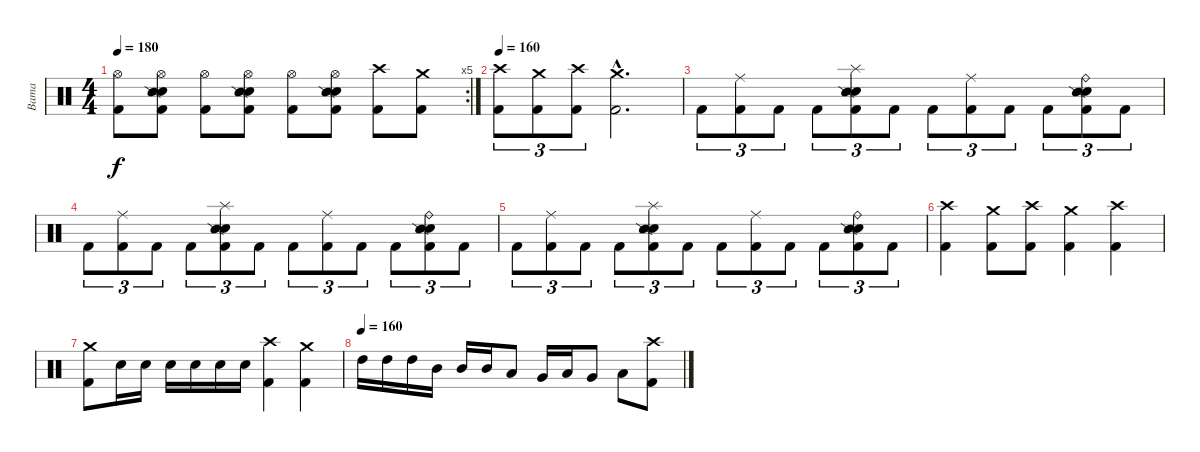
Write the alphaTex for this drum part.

\track ("Bama" "Bama") {instrument percussion}
\staff {score}
\articulation defaults
\rc 5
\ts (4 4)
\tempo 180
\clef neutral
\ks c
("Hi-Hat (open)" "Kick (hit) 2").8{dy f} ("Hi-Hat (open)" "Electric Snare (hit)" "Snare (side stick) 2" "Kick (hit) 2").8 ("Hi-Hat (open)" "Kick (hit) 2").8 ("Hi-Hat (open)" "Electric Snare (hit)" "Snare (side stick) 2" "Kick (hit) 2").8 ("Hi-Hat (open)" "Kick (hit) 2").8 ("Hi-Hat (open)" "Electric Snare (hit)" "Snare (side stick) 2" "Kick (hit) 2").8 ("Crash high (hit)" "Kick (hit) 2").8 ("Crash medium (hit)" "Kick (hit) 2").8 |
\tempo 160
("Crash high (hit)" "Kick (hit) 2").8{tu (3 2)} ("Crash medium (hit)" "Kick (hit) 2").8{tu (3 2)} ("Crash high (hit)" "Kick (hit) 2").8{tu (3 2)} ("Crash medium (hit)"{hac} "Kick (hit) 2"{hac}).2{d} |
"Kick (hit) 2".8{tu (3 2)} ("Ride (middle)" "Kick (hit) 2").8{tu (3 2)} "Kick (hit) 2".8{tu (3 2)} "Kick (hit) 2".8{tu (3 2)} ("Splash (hit)" "Electric Snare (hit)" "Snare (side stick) 2" "Kick (hit) 2").8{tu (3 2)} "Kick (hit) 2".8{tu (3 2)} "Kick (hit) 2".8{tu (3 2)} ("Ride (middle)" "Kick (hit) 2").8{tu (3 2)} "Kick (hit) 2".8{tu (3 2)} "Kick (hit) 2".8{tu (3 2)} ("Ride (bell)" "Electric Snare (hit)" "Snare (side stick) 2" "Kick (hit) 2").8{tu (3 2)} "Kick (hit) 2".8{tu (3 2)} |
"Kick (hit) 2".8{tu (3 2)} ("Ride (middle)" "Kick (hit) 2").8{tu (3 2)} "Kick (hit) 2".8{tu (3 2)} "Kick (hit) 2".8{tu (3 2)} ("Splash (hit)" "Electric Snare (hit)" "Snare (side stick) 2" "Kick (hit) 2").8{tu (3 2)} "Kick (hit) 2".8{tu (3 2)} "Kick (hit) 2".8{tu (3 2)} ("Ride (middle)" "Kick (hit) 2").8{tu (3 2)} "Kick (hit) 2".8{tu (3 2)} "Kick (hit) 2".8{tu (3 2)} ("Ride (bell)" "Electric Snare (hit)" "Snare (side stick) 2" "Kick (hit) 2").8{tu (3 2)} "Kick (hit) 2".8{tu (3 2)} |
"Kick (hit) 2".8{tu (3 2)} ("Ride (middle)" "Kick (hit) 2").8{tu (3 2)} "Kick (hit) 2".8{tu (3 2)} "Kick (hit) 2".8{tu (3 2)} ("Splash (hit)" "Electric Snare (hit)" "Snare (side stick) 2" "Kick (hit) 2").8{tu (3 2)} "Kick (hit) 2".8{tu (3 2)} "Kick (hit) 2".8{tu (3 2)} ("Ride (middle)" "Kick (hit) 2").8{tu (3 2)} "Kick (hit) 2".8{tu (3 2)} "Kick (hit) 2".8{tu (3 2)} ("Ride (bell)" "Electric Snare (hit)" "Snare (side stick) 2" "Kick (hit) 2").8{tu (3 2)} "Kick (hit) 2".8{tu (3 2)} |
("Crash high (hit)" "Kick (hit) 2").4 ("Crash medium (hit)" "Kick (hit) 2").8 ("Crash high (hit)" "Kick (hit) 2").8 ("Crash medium (hit)" "Kick (hit) 2").4 ("Crash high (hit)" "Kick (hit) 2").4 |
("Crash medium (hit)" "Kick (hit) 2").8 "Electric Snare (hit)".16 "Electric Snare (hit)".16 "Electric Snare (hit)".16 "Electric Snare (hit)".16 "Electric Snare (hit)".16 "Electric Snare (hit)".16 ("Crash high (hit)" "Kick (hit) 2").4 ("Crash medium (hit)" "Kick (hit) 2").4 |
\tempo (160)
"High Tom (hit)".16 "High Tom (hit)".16 "High Tom (hit)".16 "Mid Tom (hit)".16 "Mid Tom (hit)".16 "Mid Tom (hit)".16 "Low Tom (hit)".8 "Very Low Tom (hit)".16 "Low Tom (hit)".16 "Very Low Tom (hit)".8 "Low Floor Tom (hit)".8 ("Crash high (hit)" "Kick (hit) 2").8
